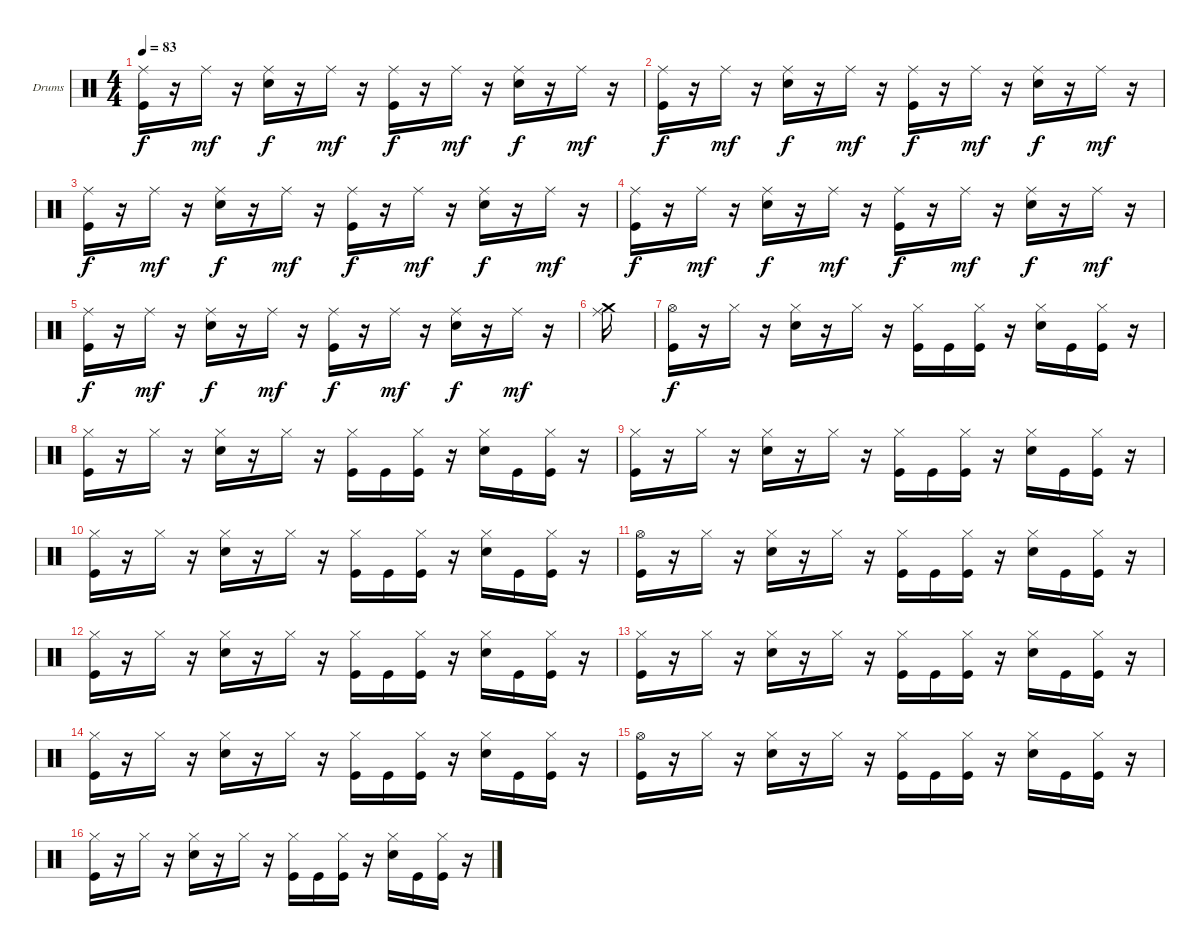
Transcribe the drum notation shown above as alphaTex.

\bracketExtendMode groupsimilarinstruments
\firstSystemTrackNameOrientation horizontal
\otherSystemsTrackNameOrientation horizontal
\track ("Drumkit" "Drums") {instrument percussion}
\staff {score}
\articulation defaults
\ts (4 4)
\tempo 83
\clef neutral
\ks c
("Kick (hit)" "Ride (middle)").16{dy f} r.16 "Ride (middle)".16{dy mf} r.16 ("Snare (hit) 2" "Ride (middle)").16{dy f} r.16 "Ride (middle)".16{dy mf} r.16 ("Kick (hit)" "Ride (middle)").16{dy f} r.16 "Ride (middle)".16{dy mf} r.16 ("Snare (hit) 2" "Ride (middle)").16{dy f} r.16 "Ride (middle)".16{dy mf} r.16 |
("Kick (hit)" "Ride (middle)").16{dy f} r.16 "Ride (middle)".16{dy mf} r.16 ("Snare (hit) 2" "Ride (middle)").16{dy f} r.16 "Ride (middle)".16{dy mf} r.16 ("Kick (hit)" "Ride (middle)").16{dy f} r.16 "Ride (middle)".16{dy mf} r.16 ("Snare (hit) 2" "Ride (middle)").16{dy f} r.16 "Ride (middle)".16{dy mf} r.16 |
("Kick (hit)" "Ride (middle)").16{dy f} r.16 "Ride (middle)".16{dy mf} r.16 ("Snare (hit) 2" "Ride (middle)").16{dy f} r.16 "Ride (middle)".16{dy mf} r.16 ("Kick (hit)" "Ride (middle)").16{dy f} r.16 "Ride (middle)".16{dy mf} r.16 ("Snare (hit) 2" "Ride (middle)").16{dy f} r.16 "Ride (middle)".16{dy mf} r.16 |
("Kick (hit)" "Ride (middle)").16{dy f} r.16 "Ride (middle)".16{dy mf} r.16 ("Snare (hit) 2" "Ride (middle)").16{dy f} r.16 "Ride (middle)".16{dy mf} r.16 ("Kick (hit)" "Ride (middle)").16{dy f} r.16 "Ride (middle)".16{dy mf} r.16 ("Snare (hit) 2" "Ride (middle)").16{dy f} r.16 "Ride (middle)".16{dy mf} r.16 |
("Kick (hit)" "Ride (middle)").16{dy f} r.16 "Ride (middle)".16{dy mf} r.16 ("Snare (hit) 2" "Ride (middle)").16{dy f} r.16 "Ride (middle)".16{dy mf} r.16 ("Kick (hit)" "Ride (middle)").16{dy f} r.16 "Ride (middle)".16{dy mf} r.16 ("Snare (hit) 2" "Ride (middle)").16{dy f} r.16 "Ride (middle)".16{dy mf} r.16 |
("Crash medium (hit)" "Ride (middle)").16 |
("Hi-Hat (open)" "Kick (hit)").16{dy f} r.16 "Hi-Hat (closed)".16 r.16 ("Hi-Hat (closed)" "Snare (hit) 2").16 r.16 "Hi-Hat (closed)".16 r.16 ("Hi-Hat (closed)" "Kick (hit)").16 "Kick (hit)".16 ("Hi-Hat (closed)" "Kick (hit)").16 r.16 ("Hi-Hat (closed)" "Snare (hit) 2").16 "Kick (hit)".16 ("Hi-Hat (closed)" "Kick (hit)").16 r.16 |
("Hi-Hat (closed)" "Kick (hit)").16 r.16 "Hi-Hat (closed)".16 r.16 ("Hi-Hat (closed)" "Snare (hit) 2").16 r.16 "Hi-Hat (closed)".16 r.16 ("Hi-Hat (closed)" "Kick (hit)").16 "Kick (hit)".16 ("Hi-Hat (closed)" "Kick (hit)").16 r.16 ("Hi-Hat (closed)" "Snare (hit) 2").16 "Kick (hit)".16 ("Hi-Hat (closed)" "Kick (hit)").16 r.16 |
("Hi-Hat (closed)" "Kick (hit)").16 r.16 "Hi-Hat (closed)".16 r.16 ("Hi-Hat (closed)" "Snare (hit) 2").16 r.16 "Hi-Hat (closed)".16 r.16 ("Hi-Hat (closed)" "Kick (hit)").16 "Kick (hit)".16 ("Hi-Hat (closed)" "Kick (hit)").16 r.16 ("Hi-Hat (closed)" "Snare (hit) 2").16 "Kick (hit)".16 ("Hi-Hat (closed)" "Kick (hit)").16 r.16 |
("Hi-Hat (closed)" "Kick (hit)").16 r.16 "Hi-Hat (closed)".16 r.16 ("Hi-Hat (closed)" "Snare (hit) 2").16 r.16 "Hi-Hat (closed)".16 r.16 ("Hi-Hat (closed)" "Kick (hit)").16 "Kick (hit)".16 ("Hi-Hat (closed)" "Kick (hit)").16 r.16 ("Hi-Hat (closed)" "Snare (hit) 2").16 "Kick (hit)".16 ("Hi-Hat (closed)" "Kick (hit)").16 r.16 |
("Hi-Hat (open)" "Kick (hit)").16 r.16 "Hi-Hat (closed)".16 r.16 ("Hi-Hat (closed)" "Snare (hit) 2").16 r.16 "Hi-Hat (closed)".16 r.16 ("Hi-Hat (closed)" "Kick (hit)").16 "Kick (hit)".16 ("Hi-Hat (closed)" "Kick (hit)").16 r.16 ("Hi-Hat (closed)" "Snare (hit) 2").16 "Kick (hit)".16 ("Hi-Hat (closed)" "Kick (hit)").16 r.16 |
("Hi-Hat (closed)" "Kick (hit)").16 r.16 "Hi-Hat (closed)".16 r.16 ("Hi-Hat (closed)" "Snare (hit) 2").16 r.16 "Hi-Hat (closed)".16 r.16 ("Hi-Hat (closed)" "Kick (hit)").16 "Kick (hit)".16 ("Hi-Hat (closed)" "Kick (hit)").16 r.16 ("Hi-Hat (closed)" "Snare (hit) 2").16 "Kick (hit)".16 ("Hi-Hat (closed)" "Kick (hit)").16 r.16 |
("Hi-Hat (closed)" "Kick (hit)").16 r.16 "Hi-Hat (closed)".16 r.16 ("Hi-Hat (closed)" "Snare (hit) 2").16 r.16 "Hi-Hat (closed)".16 r.16 ("Hi-Hat (closed)" "Kick (hit)").16 "Kick (hit)".16 ("Hi-Hat (closed)" "Kick (hit)").16 r.16 ("Hi-Hat (closed)" "Snare (hit) 2").16 "Kick (hit)".16 ("Hi-Hat (closed)" "Kick (hit)").16 r.16 |
("Hi-Hat (closed)" "Kick (hit)").16 r.16 "Hi-Hat (closed)".16 r.16 ("Hi-Hat (closed)" "Snare (hit) 2").16 r.16 "Hi-Hat (closed)".16 r.16 ("Hi-Hat (closed)" "Kick (hit)").16 "Kick (hit)".16 ("Hi-Hat (closed)" "Kick (hit)").16 r.16 ("Hi-Hat (closed)" "Snare (hit) 2").16 "Kick (hit)".16 ("Hi-Hat (closed)" "Kick (hit)").16 r.16 |
("Hi-Hat (open)" "Kick (hit)").16 r.16 "Hi-Hat (closed)".16 r.16 ("Hi-Hat (closed)" "Snare (hit) 2").16 r.16 "Hi-Hat (closed)".16 r.16 ("Hi-Hat (closed)" "Kick (hit)").16 "Kick (hit)".16 ("Hi-Hat (closed)" "Kick (hit)").16 r.16 ("Hi-Hat (closed)" "Snare (hit) 2").16 "Kick (hit)".16 ("Hi-Hat (closed)" "Kick (hit)").16 r.16 |
("Hi-Hat (closed)" "Kick (hit)").16 r.16 "Hi-Hat (closed)".16 r.16 ("Hi-Hat (closed)" "Snare (hit) 2").16 r.16 "Hi-Hat (closed)".16 r.16 ("Hi-Hat (closed)" "Kick (hit)").16 "Kick (hit)".16 ("Hi-Hat (closed)" "Kick (hit)").16 r.16 ("Hi-Hat (closed)" "Snare (hit) 2").16 "Kick (hit)".16 ("Hi-Hat (closed)" "Kick (hit)").16 r.16
